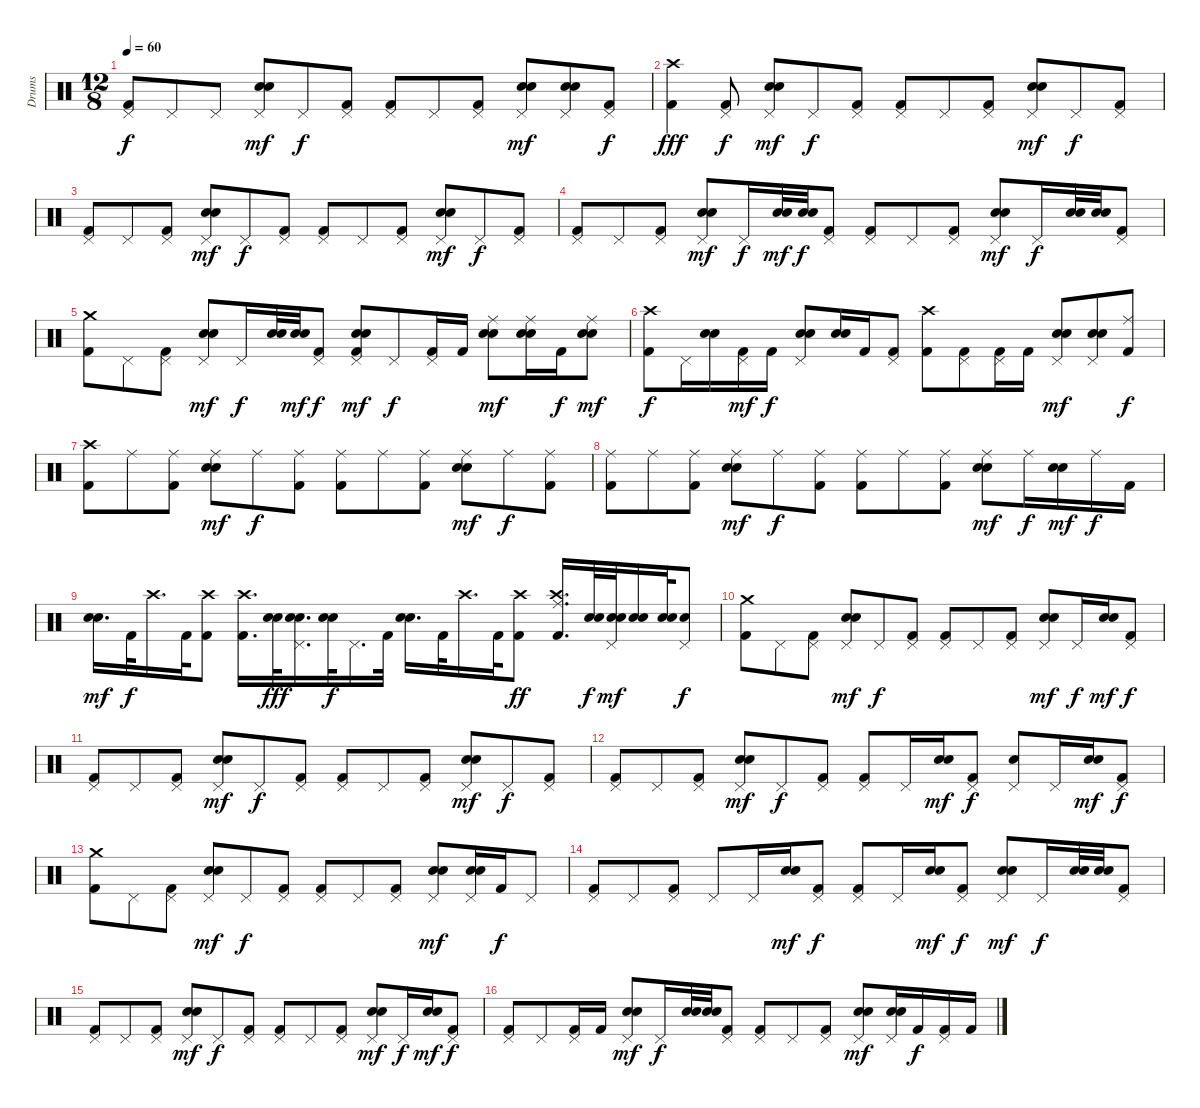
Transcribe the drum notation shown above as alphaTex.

\track ("Drums" "Drums") {instrument percussion}
\staff {score}
\articulation defaults
\ts (12 8)
\tempo 60
\clef neutral
\ks c
("Pedal Hi-Hat (hit)" "Kick (hit) 2").8{dy f} "Pedal Hi-Hat (hit)".8 "Pedal Hi-Hat (hit)".8 ("Pedal Hi-Hat (hit)" "Electric Snare (hit)" "Snare (hit) 2").8{dy mf} "Pedal Hi-Hat (hit)".8{dy f} ("Pedal Hi-Hat (hit)" "Kick (hit) 2").8 ("Pedal Hi-Hat (hit)" "Kick (hit) 2").8 "Pedal Hi-Hat (hit)".8 ("Pedal Hi-Hat (hit)" "Kick (hit) 2").8 ("Pedal Hi-Hat (hit)" "Electric Snare (hit)" "Snare (hit) 2").8{dy mf} ("Pedal Hi-Hat (hit)" "Electric Snare (hit)" "Snare (hit) 2").8 ("Pedal Hi-Hat (hit)" "Kick (hit) 2").8{dy f} |
("Crash high (hit)" "Kick (hit) 2").4{dy fff} ("Pedal Hi-Hat (hit)" "Kick (hit) 2").8{dy f} ("Pedal Hi-Hat (hit)" "Electric Snare (hit)" "Snare (hit) 2").8{dy mf} "Pedal Hi-Hat (hit)".8{dy f} ("Pedal Hi-Hat (hit)" "Kick (hit) 2").8 ("Pedal Hi-Hat (hit)" "Kick (hit) 2").8 "Pedal Hi-Hat (hit)".8 ("Pedal Hi-Hat (hit)" "Kick (hit) 2").8 ("Pedal Hi-Hat (hit)" "Electric Snare (hit)" "Snare (hit) 2").8{dy mf} "Pedal Hi-Hat (hit)".8{dy f} ("Pedal Hi-Hat (hit)" "Kick (hit) 2").8 |
("Pedal Hi-Hat (hit)" "Kick (hit) 2").8 "Pedal Hi-Hat (hit)".8 ("Pedal Hi-Hat (hit)" "Kick (hit) 2").8 ("Pedal Hi-Hat (hit)" "Electric Snare (hit)" "Snare (hit) 2").8{dy mf} "Pedal Hi-Hat (hit)".8{dy f} ("Pedal Hi-Hat (hit)" "Kick (hit) 2").8 ("Pedal Hi-Hat (hit)" "Kick (hit) 2").8 "Pedal Hi-Hat (hit)".8 ("Pedal Hi-Hat (hit)" "Kick (hit) 2").8 ("Pedal Hi-Hat (hit)" "Electric Snare (hit)" "Snare (hit) 2").8{dy mf} "Pedal Hi-Hat (hit)".8{dy f} ("Pedal Hi-Hat (hit)" "Kick (hit) 2").8 |
("Pedal Hi-Hat (hit)" "Kick (hit) 2").8 "Pedal Hi-Hat (hit)".8 ("Pedal Hi-Hat (hit)" "Kick (hit) 2").8 ("Pedal Hi-Hat (hit)" "Electric Snare (hit)" "Snare (hit) 2").8{dy mf} "Pedal Hi-Hat (hit)".16{dy f} ("Electric Snare (hit)" "Snare (hit) 2").32{dy mf} ("Electric Snare (hit)" "Snare (hit) 2").32{dy f} ("Pedal Hi-Hat (hit)" "Kick (hit) 2").8 ("Pedal Hi-Hat (hit)" "Kick (hit) 2").8 "Pedal Hi-Hat (hit)".8 ("Pedal Hi-Hat (hit)" "Kick (hit) 2").8 ("Pedal Hi-Hat (hit)" "Electric Snare (hit)" "Snare (hit) 2").8{dy mf} "Pedal Hi-Hat (hit)".16{dy f} ("Electric Snare (hit)" "Snare (hit) 2").32 ("Electric Snare (hit)" "Snare (hit) 2").32 ("Pedal Hi-Hat (hit)" "Kick (hit) 2").8 |
("Crash medium (hit)" "Kick (hit) 2").8 "Pedal Hi-Hat (hit)".8 ("Pedal Hi-Hat (hit)" "Kick (hit) 2").8 ("Pedal Hi-Hat (hit)" "Electric Snare (hit)" "Snare (hit) 2").8{dy mf} "Pedal Hi-Hat (hit)".16{dy f} ("Electric Snare (hit)" "Snare (hit) 2").32 ("Electric Snare (hit)" "Snare (hit) 2").32{dy mf} ("Pedal Hi-Hat (hit)" "Kick (hit) 2").8{dy f} ("Pedal Hi-Hat (hit)" "Snare (hit) 2" "Kick (hit) 2" "Electric Snare (hit)").8{dy mf} "Pedal Hi-Hat (hit)".8{dy f} ("Pedal Hi-Hat (hit)" "Kick (hit) 2").16 "Kick (hit) 2".16 ("Ride (middle)" "Electric Snare (hit)" "Snare (hit) 2").8{dy mf} ("Ride (middle)" "Electric Snare (hit)" "Snare (hit) 2").16 "Kick (hit) 2".16{dy f} ("Ride (middle)" "Electric Snare (hit)" "Snare (hit) 2").8{dy mf} |
("Crash high (hit)" "Kick (hit) 2").8{dy f} "Pedal Hi-Hat (hit)".16 ("Electric Snare (hit)" "Snare (hit) 2").16 ("Pedal Hi-Hat (hit)" "Kick (hit) 2").16{dy mf} "Kick (hit) 2".16{dy f} ("Pedal Hi-Hat (hit)" "Electric Snare (hit)" "Snare (hit) 2").8 ("Electric Snare (hit)" "Snare (hit) 2").16 "Kick (hit) 2".16 ("Pedal Hi-Hat (hit)" "Kick (hit) 2").8 ("Crash high (hit)" "Kick (hit) 2").8 ("Pedal Hi-Hat (hit)" "Kick (hit) 2").8 ("Pedal Hi-Hat (hit)" "Kick (hit) 2").16 "Kick (hit) 2".16 ("Pedal Hi-Hat (hit)" "Electric Snare (hit)" "Snare (hit) 2").8{dy mf} ("Pedal Hi-Hat (hit)" "Electric Snare (hit)" "Snare (hit) 2").8 ("Ride (middle)" "Kick (hit) 2").8{dy f} |
("Crash high (hit)" "Kick (hit) 2").8 "Ride (middle)".8 ("Ride (middle)" "Kick (hit) 2").8 ("Ride (middle)" "Electric Snare (hit)" "Snare (hit) 2").8{dy mf} "Ride (middle)".8{dy f} ("Ride (middle)" "Kick (hit) 2").8 ("Ride (middle)" "Kick (hit) 2").8 "Ride (middle)".8 ("Ride (middle)" "Kick (hit) 2").8 ("Ride (middle)" "Electric Snare (hit)" "Snare (hit) 2").8{dy mf} "Ride (middle)".8{dy f} ("Ride (middle)" "Kick (hit) 2").8 |
("Ride (middle)" "Kick (hit) 2").8 "Ride (middle)".8 ("Ride (middle)" "Kick (hit) 2").8 ("Ride (middle)" "Electric Snare (hit)" "Snare (hit) 2").8{dy mf} "Ride (middle)".8{dy f} ("Ride (middle)" "Kick (hit) 2").8 ("Ride (middle)" "Kick (hit) 2").8 "Ride (middle)".8 ("Ride (middle)" "Kick (hit) 2").8 ("Ride (middle)" "Electric Snare (hit)" "Snare (hit) 2").8{dy mf} "Ride (middle)".16{dy f} ("Electric Snare (hit)" "Snare (hit) 2").16{dy mf} "Ride (middle)".16{dy f} "Kick (hit) 2".16 |
("Electric Snare (hit)" "Snare (hit) 2").16{d dy mf} "Kick (hit) 2".32{dy f} "Crash high (hit)".16{d} "Kick (hit) 2".32 ("Crash high (hit)" "Kick (hit) 2").8 ("Crash high (hit)" "Kick (hit) 2").16{d} ("Electric Snare (hit)" "Snare (hit) 2").32{dy fff} ("Pedal Hi-Hat (hit)" "Electric Snare (hit)" "Snare (hit) 2").16{d} ("Electric Snare (hit)" "Snare (hit) 2").32{dy f} "Pedal Hi-Hat (hit)".16{d} "Kick (hit) 2".32 ("Electric Snare (hit)" "Snare (hit) 2").16{d} "Kick (hit) 2".32 "Crash high (hit)".16{d} "Kick (hit) 2".32 ("Kick (hit) 2" "Crash high (hit)").8{dy ff} ("Ride (middle)" "Kick (hit) 2" "Crash high (hit)").16{d} ("Electric Snare (hit)" "Snare (hit) 2").32{dy f} ("Pedal Hi-Hat (hit)" "Electric Snare (hit)" "Snare (hit) 2").32{dy mf} ("Electric Snare (hit)" "Snare (hit) 2").16 ("Electric Snare (hit)" "Snare (hit) 2").32 ("Pedal Hi-Hat (hit)" "Electric Snare (hit)").8{dy f} |
("Crash medium (hit)" "Kick (hit) 2").8 "Pedal Hi-Hat (hit)".8 ("Pedal Hi-Hat (hit)" "Kick (hit) 2").8 ("Pedal Hi-Hat (hit)" "Electric Snare (hit)" "Snare (hit) 2").8{dy mf} "Pedal Hi-Hat (hit)".8{dy f} ("Pedal Hi-Hat (hit)" "Kick (hit) 2").8 ("Pedal Hi-Hat (hit)" "Kick (hit) 2").8 "Pedal Hi-Hat (hit)".8 ("Pedal Hi-Hat (hit)" "Kick (hit) 2").8 ("Pedal Hi-Hat (hit)" "Electric Snare (hit)" "Snare (hit) 2").8{dy mf} "Pedal Hi-Hat (hit)".16{dy f} ("Electric Snare (hit)" "Snare (hit) 2").16{dy mf} ("Pedal Hi-Hat (hit)" "Kick (hit) 2").8{dy f} |
("Pedal Hi-Hat (hit)" "Kick (hit) 2").8 "Pedal Hi-Hat (hit)".8 ("Pedal Hi-Hat (hit)" "Kick (hit) 2").8 ("Pedal Hi-Hat (hit)" "Electric Snare (hit)" "Snare (hit) 2").8{dy mf} "Pedal Hi-Hat (hit)".8{dy f} ("Pedal Hi-Hat (hit)" "Kick (hit) 2").8 ("Pedal Hi-Hat (hit)" "Kick (hit) 2").8 "Pedal Hi-Hat (hit)".8 ("Pedal Hi-Hat (hit)" "Kick (hit) 2").8 ("Pedal Hi-Hat (hit)" "Electric Snare (hit)" "Snare (hit) 2").8{dy mf} "Pedal Hi-Hat (hit)".8{dy f} ("Pedal Hi-Hat (hit)" "Kick (hit) 2").8 |
("Pedal Hi-Hat (hit)" "Kick (hit) 2").8 "Pedal Hi-Hat (hit)".8 ("Pedal Hi-Hat (hit)" "Kick (hit) 2").8 ("Pedal Hi-Hat (hit)" "Electric Snare (hit)" "Snare (hit) 2").8{dy mf} "Pedal Hi-Hat (hit)".8{dy f} ("Pedal Hi-Hat (hit)" "Kick (hit) 2").8 ("Pedal Hi-Hat (hit)" "Kick (hit) 2").8 "Pedal Hi-Hat (hit)".16 ("Electric Snare (hit)" "Snare (hit) 2").16{dy mf} ("Pedal Hi-Hat (hit)" "Kick (hit) 2").8{dy f} ("Pedal Hi-Hat (hit)" "Snare (hit) 2").8 "Pedal Hi-Hat (hit)".16 ("Electric Snare (hit)" "Snare (hit) 2").16{dy mf} ("Pedal Hi-Hat (hit)" "Kick (hit) 2").8{dy f} |
("Crash medium (hit)" "Kick (hit) 2").8 "Pedal Hi-Hat (hit)".8 ("Pedal Hi-Hat (hit)" "Kick (hit) 2").8 ("Pedal Hi-Hat (hit)" "Electric Snare (hit)" "Snare (hit) 2").8{dy mf} "Pedal Hi-Hat (hit)".8{dy f} ("Pedal Hi-Hat (hit)" "Kick (hit) 2").8 ("Pedal Hi-Hat (hit)" "Kick (hit) 2").8 "Pedal Hi-Hat (hit)".8 ("Pedal Hi-Hat (hit)" "Kick (hit) 2").8 ("Pedal Hi-Hat (hit)" "Electric Snare (hit)" "Snare (hit) 2").8{dy mf} ("Pedal Hi-Hat (hit)" "Electric Snare (hit)" "Snare (hit) 2").16 "Kick (hit) 2".16{dy f} "Pedal Hi-Hat (hit)".8 |
("Pedal Hi-Hat (hit)" "Kick (hit) 2").8 "Pedal Hi-Hat (hit)".8 ("Pedal Hi-Hat (hit)" "Kick (hit) 2").8 "Pedal Hi-Hat (hit)".8 "Pedal Hi-Hat (hit)".16 ("Electric Snare (hit)" "Snare (hit) 2").16{dy mf} ("Pedal Hi-Hat (hit)" "Kick (hit) 2").8{dy f} ("Pedal Hi-Hat (hit)" "Kick (hit) 2").8 "Pedal Hi-Hat (hit)".16 ("Electric Snare (hit)" "Snare (hit) 2").16{dy mf} ("Pedal Hi-Hat (hit)" "Kick (hit) 2").8{dy f} ("Pedal Hi-Hat (hit)" "Electric Snare (hit)" "Snare (hit) 2").8{dy mf} "Pedal Hi-Hat (hit)".16{dy f} ("Electric Snare (hit)" "Snare (hit) 2").32 ("Electric Snare (hit)" "Snare (hit) 2").32 ("Pedal Hi-Hat (hit)" "Kick (hit) 2").8 |
("Pedal Hi-Hat (hit)" "Kick (hit) 2").8 "Pedal Hi-Hat (hit)".8 ("Pedal Hi-Hat (hit)" "Kick (hit) 2").8 ("Pedal Hi-Hat (hit)" "Electric Snare (hit)" "Snare (hit) 2").8{dy mf} "Pedal Hi-Hat (hit)".8{dy f} ("Pedal Hi-Hat (hit)" "Kick (hit) 2").8 ("Pedal Hi-Hat (hit)" "Kick (hit) 2").8 "Pedal Hi-Hat (hit)".8 ("Pedal Hi-Hat (hit)" "Kick (hit) 2").8 ("Pedal Hi-Hat (hit)" "Electric Snare (hit)" "Snare (hit) 2").8{dy mf} "Pedal Hi-Hat (hit)".16{dy f} ("Electric Snare (hit)" "Snare (hit) 2").16{dy mf} ("Pedal Hi-Hat (hit)" "Kick (hit) 2").8{dy f} |
("Pedal Hi-Hat (hit)" "Kick (hit) 2").8 "Pedal Hi-Hat (hit)".8 ("Pedal Hi-Hat (hit)" "Kick (hit) 2").16 "Kick (hit) 2".16 ("Pedal Hi-Hat (hit)" "Electric Snare (hit)" "Snare (hit) 2").8{dy mf} "Pedal Hi-Hat (hit)".16{dy f} ("Electric Snare (hit)" "Snare (hit) 2").32 ("Electric Snare (hit)" "Snare (hit) 2").32 ("Pedal Hi-Hat (hit)" "Kick (hit) 2").8 ("Pedal Hi-Hat (hit)" "Kick (hit) 2").8 "Pedal Hi-Hat (hit)".8 ("Pedal Hi-Hat (hit)" "Kick (hit) 2").8 ("Pedal Hi-Hat (hit)" "Electric Snare (hit)" "Snare (hit) 2").8{dy mf} ("Pedal Hi-Hat (hit)" "Electric Snare (hit)" "Snare (hit) 2").16 "Kick (hit) 2".16{dy f} ("Pedal Hi-Hat (hit)" "Kick (hit) 2").16 "Kick (hit) 2".16
